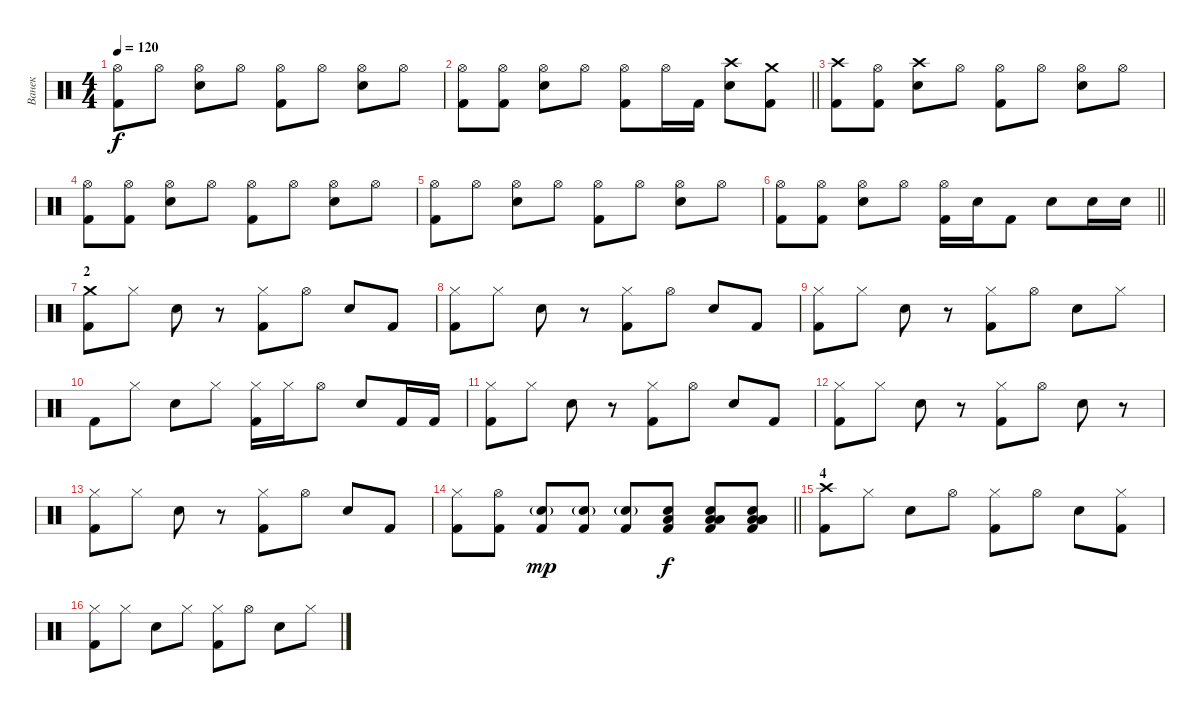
\track ("Ванек" "Ванек") {instrument percussion}
\staff {score}
\articulation defaults
\ts (4 4)
\tempo 120
\clef neutral
\ks c
("Hi-Hat (open)" "Kick (hit) 2").8{dy f} "Hi-Hat (open)".8 ("Hi-Hat (open)" "Electric Snare (hit)").8 "Hi-Hat (open)".8 ("Hi-Hat (open)" "Kick (hit) 2").8 "Hi-Hat (open)".8 ("Hi-Hat (open)" "Electric Snare (hit)").8 "Hi-Hat (open)".8 |
\barLineRight lightlight
("Hi-Hat (open)" "Kick (hit) 2").8 ("Hi-Hat (open)" "Kick (hit) 2").8 ("Hi-Hat (open)" "Electric Snare (hit)").8 "Hi-Hat (open)".8 ("Hi-Hat (open)" "Kick (hit) 2").8 "Hi-Hat (open)".16 "Kick (hit) 2".16 ("Crash high (hit)" "Electric Snare (hit)").8 ("Crash medium (hit)" "Kick (hit) 2").8 |
("Crash high (hit)" "Kick (hit) 2").8 ("Hi-Hat (open)" "Kick (hit) 2").8 ("Crash high (hit)" "Electric Snare (hit)").8 "Hi-Hat (open)".8 ("Hi-Hat (open)" "Kick (hit) 2").8 "Hi-Hat (open)".8 ("Hi-Hat (open)" "Electric Snare (hit)").8 "Hi-Hat (open)".8 |
("Hi-Hat (open)" "Kick (hit) 2").8 ("Hi-Hat (open)" "Kick (hit) 2").8 ("Hi-Hat (open)" "Electric Snare (hit)").8 "Hi-Hat (open)".8 ("Hi-Hat (open)" "Kick (hit) 2").8 "Hi-Hat (open)".8 ("Hi-Hat (open)" "Electric Snare (hit)").8 "Hi-Hat (open)".8 |
("Hi-Hat (open)" "Kick (hit) 2").8 "Hi-Hat (open)".8 ("Hi-Hat (open)" "Electric Snare (hit)").8 "Hi-Hat (open)".8 ("Hi-Hat (open)" "Kick (hit) 2").8 "Hi-Hat (open)".8 ("Hi-Hat (open)" "Electric Snare (hit)").8 "Hi-Hat (open)".8 |
\barLineRight lightlight
("Hi-Hat (open)" "Kick (hit) 2").8 ("Hi-Hat (open)" "Kick (hit) 2").8 ("Hi-Hat (open)" "Electric Snare (hit)").8 "Hi-Hat (open)".8 ("Hi-Hat (open)" "Kick (hit) 2").16 "Electric Snare (hit)".16 "Kick (hit) 2".8 "Electric Snare (hit)".8 "Electric Snare (hit)".16 "Electric Snare (hit)".16 |
\section ("" "2")
("Crash medium (hit)" "Kick (hit) 2").8 "Hi-Hat (closed)".8 "Electric Snare (hit)".8 r.8 ("Hi-Hat (closed)" "Kick (hit) 2").8 "Hi-Hat (open)".8 "Electric Snare (hit)".8 "Kick (hit) 2".8 |
("Hi-Hat (closed)" "Kick (hit) 2").8 "Hi-Hat (closed)".8 "Electric Snare (hit)".8 r.8 ("Hi-Hat (closed)" "Kick (hit) 2").8 "Hi-Hat (open)".8 "Electric Snare (hit)".8 "Kick (hit) 2".8 |
("Hi-Hat (closed)" "Kick (hit) 2").8 "Hi-Hat (closed)".8 "Electric Snare (hit)".8 r.8 ("Hi-Hat (closed)" "Kick (hit) 2").8 "Hi-Hat (open)".8 "Electric Snare (hit)".8 "Hi-Hat (closed)".8 |
"Kick (hit) 2".8 "Hi-Hat (closed)".8 "Electric Snare (hit)".8 "Hi-Hat (closed)".8 ("Hi-Hat (closed)" "Kick (hit) 2").16 "Hi-Hat (closed)".16 "Hi-Hat (open)".8 "Electric Snare (hit)".8 "Kick (hit) 2".16 "Kick (hit) 2".16 |
("Hi-Hat (closed)" "Kick (hit) 2").8 "Hi-Hat (closed)".8 "Electric Snare (hit)".8 r.8 ("Hi-Hat (closed)" "Kick (hit) 2").8 "Hi-Hat (open)".8 "Electric Snare (hit)".8 "Kick (hit) 2".8 |
("Hi-Hat (closed)" "Kick (hit) 2").8 "Hi-Hat (closed)".8 "Electric Snare (hit)".8 r.8 ("Hi-Hat (closed)" "Kick (hit) 2").8 "Hi-Hat (open)".8 "Electric Snare (hit)".8 r.8 |
("Hi-Hat (closed)" "Kick (hit) 2").8 "Hi-Hat (closed)".8 "Electric Snare (hit)".8 r.8 ("Hi-Hat (closed)" "Kick (hit) 2").8 "Hi-Hat (open)".8 "Electric Snare (hit)".8 "Kick (hit) 2".8 |
\barLineRight lightlight
("Hi-Hat (closed)" "Kick (hit) 2").8 ("Hi-Hat (open)" "Kick (hit) 2").8 ("Electric Snare (hit)"{g} "Kick (hit) 2").8{dy mp} ("Electric Snare (hit)"{g} "Kick (hit) 2").8 ("Electric Snare (hit)"{g} "Kick (hit) 2").8 ("Electric Snare (hit)" "Low Tom (hit)" "Kick (hit) 2").8{dy f} ("Electric Snare (hit)" "Low Tom (hit)" "Low Tom (hit)" "Kick (hit) 2").8 ("Electric Snare (hit)" "Low Tom (hit)" "Low Tom (hit)" "Low Tom (hit)" "Kick (hit) 2").8 |
\section ("" "4")
("Crash high (hit)" "Kick (hit) 2").8 "Hi-Hat (closed)".8 "Electric Snare (hit)".8 "Hi-Hat (open)".8 ("Hi-Hat (closed)" "Kick (hit) 2").8 "Hi-Hat (open)".8 "Electric Snare (hit)".8 ("Hi-Hat (closed)" "Kick (hit) 2").8 |
("Hi-Hat (closed)" "Kick (hit) 2").8 "Hi-Hat (closed)".8 "Electric Snare (hit)".8 "Hi-Hat (closed)".8 ("Hi-Hat (closed)" "Kick (hit) 2").8 "Hi-Hat (open)".8 "Electric Snare (hit)".8 "Hi-Hat (closed)".8
